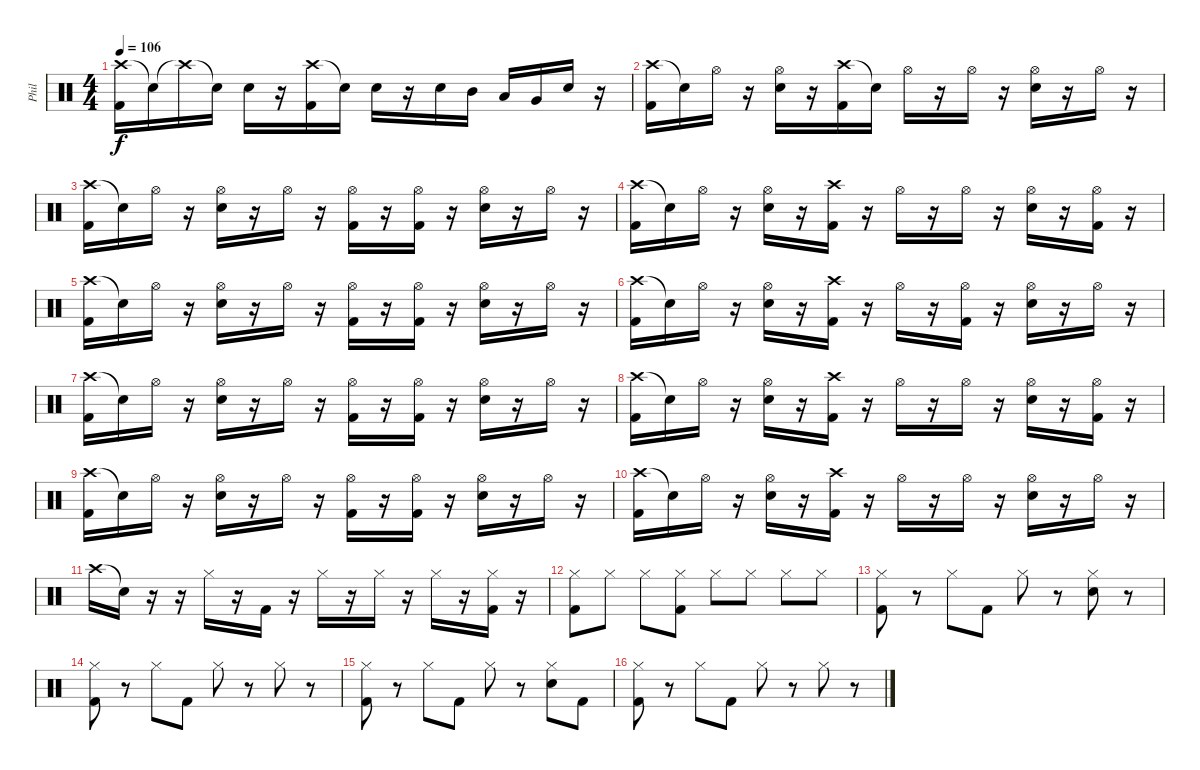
\track ("Phil" "Phil") {instrument percussion}
\staff {score}
\articulation defaults
\ts (4 4)
\tempo 106
\clef neutral
\ks c
("Crash high (hit)" "Kick (hit) 2").16{dy f} "Snare (hit)"{t}.16 "Crash high (hit)"{t}.16 "Snare (hit)"{t}.16 "Snare (hit) 2".16 r.16 ("Crash high (hit)" "Kick (hit) 2").16 "Snare (hit)"{t}.16 "Snare (hit) 2".16 r.16 "Snare (hit) 2".16 "Mid Tom (hit)".16 "Low Tom (hit)".16 "Very Low Tom (hit)".16 "Snare (hit) 2".16 r.16 |
("Crash high (hit)" "Kick (hit) 2").16 "Snare (hit)"{t}.16 "Hi-Hat (open)".16 r.16 ("Hi-Hat (open)" "Snare (hit) 2").16 r.16 ("Crash high (hit)" "Kick (hit) 2").16 "Snare (hit)"{t}.16 "Hi-Hat (open)".16 r.16 "Hi-Hat (open)".16 r.16 ("Hi-Hat (open)" "Snare (hit) 2").16 r.16 "Hi-Hat (open)".16 r.16 |
("Crash high (hit)" "Kick (hit) 2").16 "Snare (hit)"{t}.16 "Hi-Hat (open)".16 r.16 ("Hi-Hat (open)" "Snare (hit) 2").16 r.16 "Hi-Hat (open)".16 r.16 ("Hi-Hat (open)" "Kick (hit) 2").16 r.16 ("Hi-Hat (open)" "Kick (hit) 2").16 r.16 ("Hi-Hat (open)" "Snare (hit) 2").16 r.16 "Hi-Hat (open)".16 r.16 |
("Crash high (hit)" "Kick (hit) 2").16 "Snare (hit)"{t}.16 "Hi-Hat (open)".16 r.16 ("Hi-Hat (open)" "Snare (hit) 2").16 r.16 ("Crash high (hit)" "Kick (hit) 2").16 r.16 "Hi-Hat (open)".16 r.16 "Hi-Hat (open)".16 r.16 ("Hi-Hat (open)" "Snare (hit) 2").16 r.16 ("Hi-Hat (open)" "Kick (hit) 2").16 r.16 |
("Crash high (hit)" "Kick (hit) 2").16 "Snare (hit)"{t}.16 "Hi-Hat (open)".16 r.16 ("Hi-Hat (open)" "Snare (hit) 2").16 r.16 "Hi-Hat (open)".16 r.16 ("Hi-Hat (open)" "Kick (hit) 2").16 r.16 ("Hi-Hat (open)" "Kick (hit) 2").16 r.16 ("Hi-Hat (open)" "Snare (hit) 2").16 r.16 "Hi-Hat (open)".16 r.16 |
("Crash high (hit)" "Kick (hit) 2").16 "Snare (hit)"{t}.16 "Hi-Hat (open)".16 r.16 ("Hi-Hat (open)" "Snare (hit) 2").16 r.16 ("Crash high (hit)" "Kick (hit) 2").16 r.16 "Hi-Hat (open)".16 r.16 ("Hi-Hat (open)" "Kick (hit) 2").16 r.16 ("Hi-Hat (open)" "Snare (hit) 2").16 r.16 "Hi-Hat (open)".16 r.16 |
("Crash high (hit)" "Kick (hit) 2").16 "Snare (hit)"{t}.16 "Hi-Hat (open)".16 r.16 ("Hi-Hat (open)" "Snare (hit) 2").16 r.16 "Hi-Hat (open)".16 r.16 ("Hi-Hat (open)" "Kick (hit) 2").16 r.16 ("Hi-Hat (open)" "Kick (hit) 2").16 r.16 ("Hi-Hat (open)" "Snare (hit) 2").16 r.16 "Hi-Hat (open)".16 r.16 |
("Crash high (hit)" "Kick (hit) 2").16 "Snare (hit)"{t}.16 "Hi-Hat (open)".16 r.16 ("Hi-Hat (open)" "Snare (hit) 2").16 r.16 ("Crash high (hit)" "Kick (hit) 2").16 r.16 "Hi-Hat (open)".16 r.16 "Hi-Hat (open)".16 r.16 ("Hi-Hat (open)" "Snare (hit) 2").16 r.16 ("Hi-Hat (open)" "Kick (hit) 2").16 r.16 |
("Crash high (hit)" "Kick (hit) 2").16 "Snare (hit)"{t}.16 "Hi-Hat (open)".16 r.16 ("Hi-Hat (open)" "Snare (hit) 2").16 r.16 "Hi-Hat (open)".16 r.16 ("Hi-Hat (open)" "Kick (hit) 2").16 r.16 ("Hi-Hat (open)" "Kick (hit) 2").16 r.16 ("Hi-Hat (open)" "Snare (hit) 2").16 r.16 "Hi-Hat (open)".16 r.16 |
("Crash high (hit)" "Kick (hit) 2").16 "Snare (hit)"{t}.16 "Hi-Hat (open)".16 r.16 ("Hi-Hat (open)" "Snare (hit) 2").16 r.16 ("Crash high (hit)" "Kick (hit) 2").16 r.16 "Hi-Hat (open)".16 r.16 "Hi-Hat (open)".16 r.16 ("Hi-Hat (open)" "Snare (hit) 2").16 r.16 "Hi-Hat (open)".16 r.16 |
"Crash high (hit)".16 "Snare (hit)"{t}.16 r.16 r.16 "Hi-Hat (closed)".16 r.16 "Kick (hit) 2".16 r.16 "Hi-Hat (closed)".16 r.16 "Hi-Hat (closed)".16 r.16 "Hi-Hat (closed)".16 r.16 ("Hi-Hat (closed)" "Kick (hit) 2").16 r.16 |
("Hi-Hat (closed)" "Kick (hit) 2").8 "Hi-Hat (closed)".8 "Hi-Hat (closed)".8 ("Hi-Hat (closed)" "Kick (hit) 2").8 "Hi-Hat (closed)".8 "Hi-Hat (closed)".8 "Hi-Hat (closed)".8 "Hi-Hat (closed)".8 |
("Hi-Hat (closed)" "Kick (hit) 2").8 r.8 "Hi-Hat (closed)".8 "Kick (hit) 2".8 "Hi-Hat (closed)".8 r.8 ("Hi-Hat (closed)" "Snare (hit) 2").8 r.8 |
("Hi-Hat (closed)" "Kick (hit) 2").8 r.8 "Hi-Hat (closed)".8 "Kick (hit) 2".8 "Hi-Hat (closed)".8 r.8 "Hi-Hat (closed)".8 r.8 |
("Hi-Hat (closed)" "Kick (hit) 2").8 r.8 "Hi-Hat (closed)".8 "Kick (hit) 2".8 "Hi-Hat (closed)".8 r.8 ("Hi-Hat (closed)" "Snare (hit) 2").8 "Kick (hit) 2".8 |
("Hi-Hat (closed)" "Kick (hit) 2").8 r.8 "Hi-Hat (closed)".8 "Kick (hit) 2".8 "Hi-Hat (closed)".8 r.8 "Hi-Hat (closed)".8 r.8
